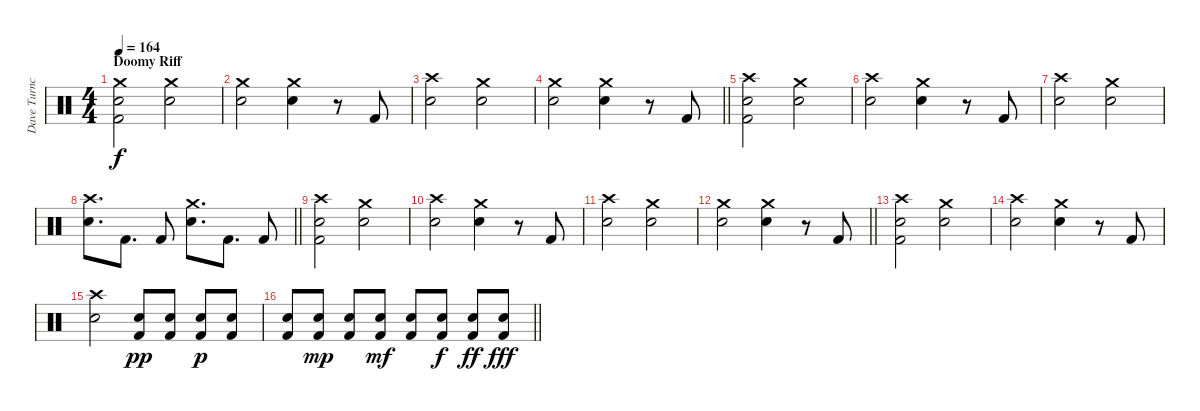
\track ("Dave Turncrantz" "Dave Turnc") {instrument percussion}
\staff {score}
\articulation defaults
\ts (4 4)
\section ("" "Doomy Riff")
\tempo 164
\clef neutral
\ks c
("Crash medium (hit)" "Electric Snare (hit)" "Kick (hit) 2").2{dy f} ("Crash medium (hit)" "Electric Snare (hit)").2 |
("Crash medium (hit)" "Electric Snare (hit)").2 ("Crash medium (hit)" "Electric Snare (hit)").4 r.8 "Kick (hit) 2".8 |
("Crash high (hit)" "Electric Snare (hit)").2 ("Crash medium (hit)" "Electric Snare (hit)").2 |
\barLineRight lightlight
("Crash medium (hit)" "Electric Snare (hit)").2 ("Crash medium (hit)" "Electric Snare (hit)").4 r.8 "Kick (hit) 2".8 |
\section ("" "")
("Crash high (hit)" "Electric Snare (hit)" "Kick (hit) 2").2 ("Crash medium (hit)" "Electric Snare (hit)").2 |
("Crash high (hit)" "Electric Snare (hit)").2 ("Crash medium (hit)" "Electric Snare (hit)").4 r.8 "Kick (hit) 2".8 |
("Crash high (hit)" "Electric Snare (hit)").2 ("Crash medium (hit)" "Electric Snare (hit)").2 |
\barLineRight lightlight
("Crash high (hit)" "Electric Snare (hit)").8{d} "Kick (hit) 2".8{d} "Kick (hit) 2".8 ("Crash medium (hit)" "Electric Snare (hit)").8{d} "Kick (hit) 2".8{d} "Kick (hit) 2".8 |
\section ("" "")
("Crash high (hit)" "Electric Snare (hit)" "Kick (hit) 2").2 ("Crash medium (hit)" "Electric Snare (hit)").2 |
("Crash high (hit)" "Electric Snare (hit)").2 ("Crash medium (hit)" "Electric Snare (hit)").4 r.8 "Kick (hit) 2".8 |
("Crash high (hit)" "Electric Snare (hit)").2 ("Crash medium (hit)" "Electric Snare (hit)").2 |
\barLineRight lightlight
("Crash medium (hit)" "Electric Snare (hit)").2 ("Crash medium (hit)" "Electric Snare (hit)").4 r.8 "Kick (hit) 2".8 |
\section ("" "")
("Crash high (hit)" "Electric Snare (hit)" "Kick (hit) 2").2 ("Crash medium (hit)" "Electric Snare (hit)").2 |
("Crash high (hit)" "Electric Snare (hit)").2 ("Crash medium (hit)" "Electric Snare (hit)").4 r.8 "Kick (hit) 2".8 |
("Crash high (hit)" "Electric Snare (hit)").2 ("Electric Snare (hit)" "Kick (hit) 2").8{dy pp} ("Electric Snare (hit)" "Kick (hit) 2").8 ("Electric Snare (hit)" "Kick (hit) 2").8{dy p} ("Electric Snare (hit)" "Kick (hit) 2").8 |
\barLineRight lightlight
("Electric Snare (hit)" "Kick (hit) 2").8 ("Electric Snare (hit)" "Kick (hit) 2").8{dy mp} ("Electric Snare (hit)" "Kick (hit) 2").8 ("Electric Snare (hit)" "Kick (hit) 2").8{dy mf} ("Electric Snare (hit)" "Kick (hit) 2").8 ("Electric Snare (hit)" "Kick (hit) 2").8{dy f} ("Electric Snare (hit)" "Kick (hit) 2").8{dy ff} ("Electric Snare (hit)" "Kick (hit) 2").8{dy fff}
